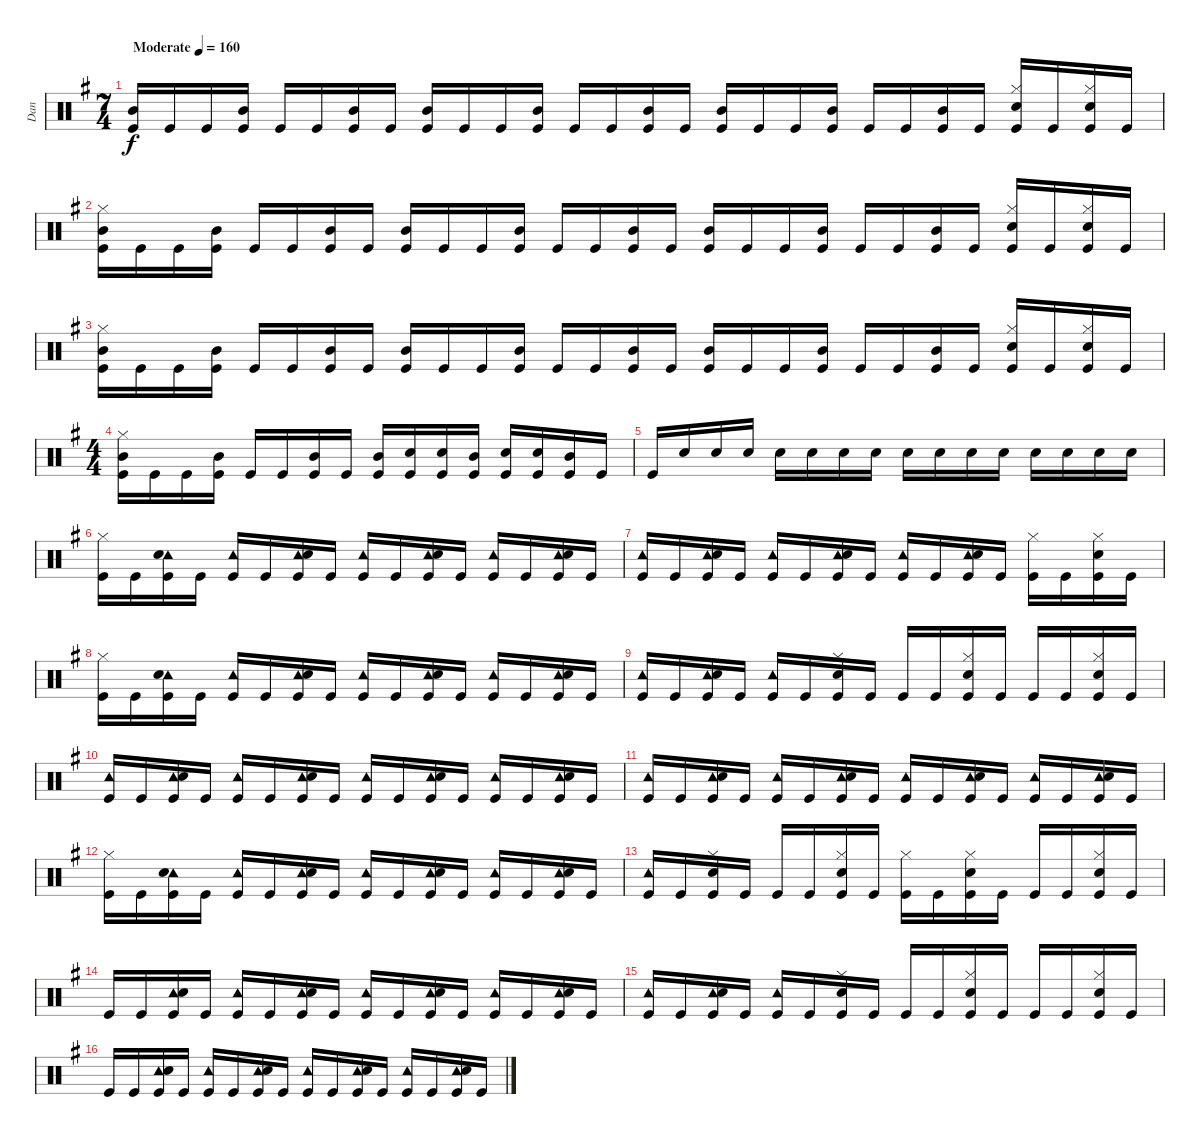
\track ("Dan" "Dan") {instrument percussion}
\staff {score}
\articulation defaults
\ts (7 4)
\tempo (160 "Moderate")
\clef neutral
\ks g
("Mid Tom (hit)" "Kick (hit)").16{dy f} "Kick (hit)".16 "Kick (hit)".16 ("Mid Tom (hit)" "Kick (hit)").16 "Kick (hit)".16 "Kick (hit)".16 ("Mid Tom (hit)" "Kick (hit)").16 "Kick (hit)".16 ("Mid Tom (hit)" "Kick (hit)").16 "Kick (hit)".16 "Kick (hit)".16 ("Mid Tom (hit)" "Kick (hit)").16 "Kick (hit)".16 "Kick (hit)".16 ("Mid Tom (hit)" "Kick (hit)").16 "Kick (hit)".16 ("Mid Tom (hit)" "Kick (hit)").16 "Kick (hit)".16 "Kick (hit)".16 ("Mid Tom (hit)" "Kick (hit)").16 "Kick (hit)".16 "Kick (hit)".16 ("Mid Tom (hit)" "Kick (hit)").16 "Kick (hit)".16 ("Hi-Hat (closed)" "Snare (hit) 2" "Kick (hit)").16 "Kick (hit)".16 ("Hi-Hat (closed)" "Snare (hit) 2" "Kick (hit)").16 "Kick (hit)".16 |
("Hi-Hat (closed)" "Mid Tom (hit)" "Kick (hit)").16 "Kick (hit)".16 "Kick (hit)".16 ("Mid Tom (hit)" "Kick (hit)").16 "Kick (hit)".16 "Kick (hit)".16 ("Mid Tom (hit)" "Kick (hit)").16 "Kick (hit)".16 ("Mid Tom (hit)" "Kick (hit)").16 "Kick (hit)".16 "Kick (hit)".16 ("Mid Tom (hit)" "Kick (hit)").16 "Kick (hit)".16 "Kick (hit)".16 ("Mid Tom (hit)" "Kick (hit)").16 "Kick (hit)".16 ("Mid Tom (hit)" "Kick (hit)").16 "Kick (hit)".16 "Kick (hit)".16 ("Mid Tom (hit)" "Kick (hit)").16 "Kick (hit)".16 "Kick (hit)".16 ("Mid Tom (hit)" "Kick (hit)").16 "Kick (hit)".16 ("Hi-Hat (closed)" "Snare (hit) 2" "Kick (hit)").16 "Kick (hit)".16 ("Hi-Hat (closed)" "Snare (hit) 2" "Kick (hit)").16 "Kick (hit)".16 |
("Hi-Hat (closed)" "Mid Tom (hit)" "Kick (hit)").16 "Kick (hit)".16 "Kick (hit)".16 ("Mid Tom (hit)" "Kick (hit)").16 "Kick (hit)".16 "Kick (hit)".16 ("Mid Tom (hit)" "Kick (hit)").16 "Kick (hit)".16 ("Mid Tom (hit)" "Kick (hit)").16 "Kick (hit)".16 "Kick (hit)".16 ("Mid Tom (hit)" "Kick (hit)").16 "Kick (hit)".16 "Kick (hit)".16 ("Mid Tom (hit)" "Kick (hit)").16 "Kick (hit)".16 ("Mid Tom (hit)" "Kick (hit)").16 "Kick (hit)".16 "Kick (hit)".16 ("Mid Tom (hit)" "Kick (hit)").16 "Kick (hit)".16 "Kick (hit)".16 ("Mid Tom (hit)" "Kick (hit)").16 "Kick (hit)".16 ("Hi-Hat (closed)" "Snare (hit) 2" "Kick (hit)").16 "Kick (hit)".16 ("Hi-Hat (closed)" "Snare (hit) 2" "Kick (hit)").16 "Kick (hit)".16 |
\ts (4 4)
("Hi-Hat (closed)" "Mid Tom (hit)" "Kick (hit)").16 "Kick (hit)".16 "Kick (hit)".16 ("Mid Tom (hit)" "Kick (hit)").16 "Kick (hit)".16 "Kick (hit)".16 ("Mid Tom (hit)" "Kick (hit)").16 "Kick (hit)".16 ("Mid Tom (hit)" "Kick (hit)").16 ("Snare (hit) 2" "Kick (hit)").16 ("Snare (hit) 2" "Kick (hit)").16 ("Mid Tom (hit)" "Kick (hit)").16 ("Snare (hit) 2" "Kick (hit)").16 ("Snare (hit) 2" "Kick (hit)").16 ("Mid Tom (hit)" "Kick (hit)").16 "Kick (hit)".16 |
"Kick (hit)".16 "Snare (hit) 2".16 "Snare (hit) 2".16 "Snare (hit) 2".16 "Snare (hit) 2".16 "Snare (hit) 2".16 "Snare (hit) 2".16 "Snare (hit) 2".16 "Snare (hit) 2".16 "Snare (hit) 2".16 "Snare (hit) 2".16 "Snare (hit) 2".16 "Snare (hit) 2".16 "Snare (hit) 2".16 "Snare (hit) 2".16 "Snare (hit) 2".16 |
("Hi-Hat (closed)" "Kick (hit)").16 "Kick (hit)".16 ("Tambourine (hit)" "Snare (hit) 2" "Kick (hit)").16 "Kick (hit)".16 ("Tambourine (hit)" "Kick (hit)").16 "Kick (hit)".16 ("Tambourine (hit)" "Snare (hit) 2" "Kick (hit)").16 "Kick (hit)".16 ("Tambourine (hit)" "Kick (hit)").16 "Kick (hit)".16 ("Tambourine (hit)" "Snare (hit) 2" "Kick (hit)").16 "Kick (hit)".16 ("Tambourine (hit)" "Kick (hit)").16 "Kick (hit)".16 ("Tambourine (hit)" "Snare (hit) 2" "Kick (hit)").16 "Kick (hit)".16 |
("Tambourine (hit)" "Kick (hit)").16 "Kick (hit)".16 ("Tambourine (hit)" "Snare (hit) 2" "Kick (hit)").16 "Kick (hit)".16 ("Tambourine (hit)" "Kick (hit)").16 "Kick (hit)".16 ("Tambourine (hit)" "Snare (hit) 2" "Kick (hit)").16 "Kick (hit)".16 ("Tambourine (hit)" "Kick (hit)").16 "Kick (hit)".16 ("Tambourine (hit)" "Snare (hit) 2" "Kick (hit)").16 "Kick (hit)".16 ("Hi-Hat (closed)" "Kick (hit)").16 "Kick (hit)".16 ("Hi-Hat (closed)" "Snare (hit) 2" "Kick (hit)").16 "Kick (hit)".16 |
("Hi-Hat (closed)" "Kick (hit)").16 "Kick (hit)".16 ("Tambourine (hit)" "Snare (hit) 2" "Kick (hit)").16 "Kick (hit)".16 ("Tambourine (hit)" "Kick (hit)").16 "Kick (hit)".16 ("Tambourine (hit)" "Snare (hit) 2" "Kick (hit)").16 "Kick (hit)".16 ("Tambourine (hit)" "Kick (hit)").16 "Kick (hit)".16 ("Tambourine (hit)" "Snare (hit) 2" "Kick (hit)").16 "Kick (hit)".16 ("Tambourine (hit)" "Kick (hit)").16 "Kick (hit)".16 ("Tambourine (hit)" "Snare (hit) 2" "Kick (hit)").16 "Kick (hit)".16 |
("Tambourine (hit)" "Kick (hit)").16 "Kick (hit)".16 ("Tambourine (hit)" "Snare (hit) 2" "Kick (hit)").16 "Kick (hit)".16 ("Tambourine (hit)" "Kick (hit)").16 "Kick (hit)".16 ("Hi-Hat (closed)" "Snare (hit) 2" "Kick (hit)").16 "Kick (hit)".16 "Kick (hit)".16 "Kick (hit)".16 ("Hi-Hat (closed)" "Snare (hit) 2" "Kick (hit)").16 "Kick (hit)".16 "Kick (hit)".16 "Kick (hit)".16 ("Hi-Hat (closed)" "Snare (hit) 2" "Kick (hit)").16 "Kick (hit)".16 |
("Tambourine (hit)" "Kick (hit)").16 "Kick (hit)".16 ("Tambourine (hit)" "Snare (hit) 2" "Kick (hit)").16 "Kick (hit)".16 ("Tambourine (hit)" "Kick (hit)").16 "Kick (hit)".16 ("Tambourine (hit)" "Snare (hit) 2" "Kick (hit)").16 "Kick (hit)".16 ("Tambourine (hit)" "Kick (hit)").16 "Kick (hit)".16 ("Tambourine (hit)" "Snare (hit) 2" "Kick (hit)").16 "Kick (hit)".16 ("Tambourine (hit)" "Kick (hit)").16 "Kick (hit)".16 ("Tambourine (hit)" "Snare (hit) 2" "Kick (hit)").16 "Kick (hit)".16 |
("Tambourine (hit)" "Kick (hit)").16 "Kick (hit)".16 ("Tambourine (hit)" "Snare (hit) 2" "Kick (hit)").16 "Kick (hit)".16 ("Tambourine (hit)" "Kick (hit)").16 "Kick (hit)".16 ("Tambourine (hit)" "Snare (hit) 2" "Kick (hit)").16 "Kick (hit)".16 ("Tambourine (hit)" "Kick (hit)").16 "Kick (hit)".16 ("Tambourine (hit)" "Snare (hit) 2" "Kick (hit)").16 "Kick (hit)".16 ("Tambourine (hit)" "Kick (hit)").16 "Kick (hit)".16 ("Tambourine (hit)" "Snare (hit) 2" "Kick (hit)").16 "Kick (hit)".16 |
("Hi-Hat (closed)" "Kick (hit)").16 "Kick (hit)".16 ("Tambourine (hit)" "Snare (hit) 2" "Kick (hit)").16 "Kick (hit)".16 ("Tambourine (hit)" "Kick (hit)").16 "Kick (hit)".16 ("Tambourine (hit)" "Snare (hit) 2" "Kick (hit)").16 "Kick (hit)".16 ("Tambourine (hit)" "Kick (hit)").16 "Kick (hit)".16 ("Tambourine (hit)" "Snare (hit) 2" "Kick (hit)").16 "Kick (hit)".16 ("Tambourine (hit)" "Kick (hit)").16 "Kick (hit)".16 ("Tambourine (hit)" "Snare (hit) 2" "Kick (hit)").16 "Kick (hit)".16 |
("Tambourine (hit)" "Kick (hit)").16 "Kick (hit)".16 ("Hi-Hat (closed)" "Snare (hit) 2" "Kick (hit)").16 "Kick (hit)".16 "Kick (hit)".16 "Kick (hit)".16 ("Hi-Hat (closed)" "Snare (hit) 2" "Kick (hit)").16 "Kick (hit)".16 ("Hi-Hat (closed)" "Kick (hit)").16 "Kick (hit)".16 ("Hi-Hat (closed)" "Snare (hit) 2" "Kick (hit)").16 "Kick (hit)".16 "Kick (hit)".16 "Kick (hit)".16 ("Hi-Hat (closed)" "Snare (hit) 2" "Kick (hit)").16 "Kick (hit)".16 |
"Kick (hit)".16 "Kick (hit)".16 ("Tambourine (hit)" "Snare (hit) 2" "Kick (hit)").16 "Kick (hit)".16 ("Tambourine (hit)" "Kick (hit)").16 "Kick (hit)".16 ("Tambourine (hit)" "Snare (hit) 2" "Kick (hit)").16 "Kick (hit)".16 ("Tambourine (hit)" "Kick (hit)").16 "Kick (hit)".16 ("Tambourine (hit)" "Snare (hit) 2" "Kick (hit)").16 "Kick (hit)".16 ("Tambourine (hit)" "Kick (hit)").16 "Kick (hit)".16 ("Tambourine (hit)" "Snare (hit) 2" "Kick (hit)").16 "Kick (hit)".16 |
("Tambourine (hit)" "Kick (hit)").16 "Kick (hit)".16 ("Tambourine (hit)" "Snare (hit) 2" "Kick (hit)").16 "Kick (hit)".16 ("Tambourine (hit)" "Kick (hit)").16 "Kick (hit)".16 ("Hi-Hat (closed)" "Snare (hit) 2" "Kick (hit)").16 "Kick (hit)".16 "Kick (hit)".16 "Kick (hit)".16 ("Hi-Hat (closed)" "Snare (hit) 2" "Kick (hit)").16 "Kick (hit)".16 "Kick (hit)".16 "Kick (hit)".16 ("Hi-Hat (closed)" "Snare (hit) 2" "Kick (hit)").16 "Kick (hit)".16 |
"Kick (hit)".16 "Kick (hit)".16 ("Tambourine (hit)" "Snare (hit) 2" "Kick (hit)").16 "Kick (hit)".16 ("Tambourine (hit)" "Kick (hit)").16 "Kick (hit)".16 ("Tambourine (hit)" "Snare (hit) 2" "Kick (hit)").16 "Kick (hit)".16 ("Tambourine (hit)" "Kick (hit)").16 "Kick (hit)".16 ("Tambourine (hit)" "Snare (hit) 2" "Kick (hit)").16 "Kick (hit)".16 ("Tambourine (hit)" "Kick (hit)").16 "Kick (hit)".16 ("Tambourine (hit)" "Snare (hit) 2" "Kick (hit)").16 "Kick (hit)".16
